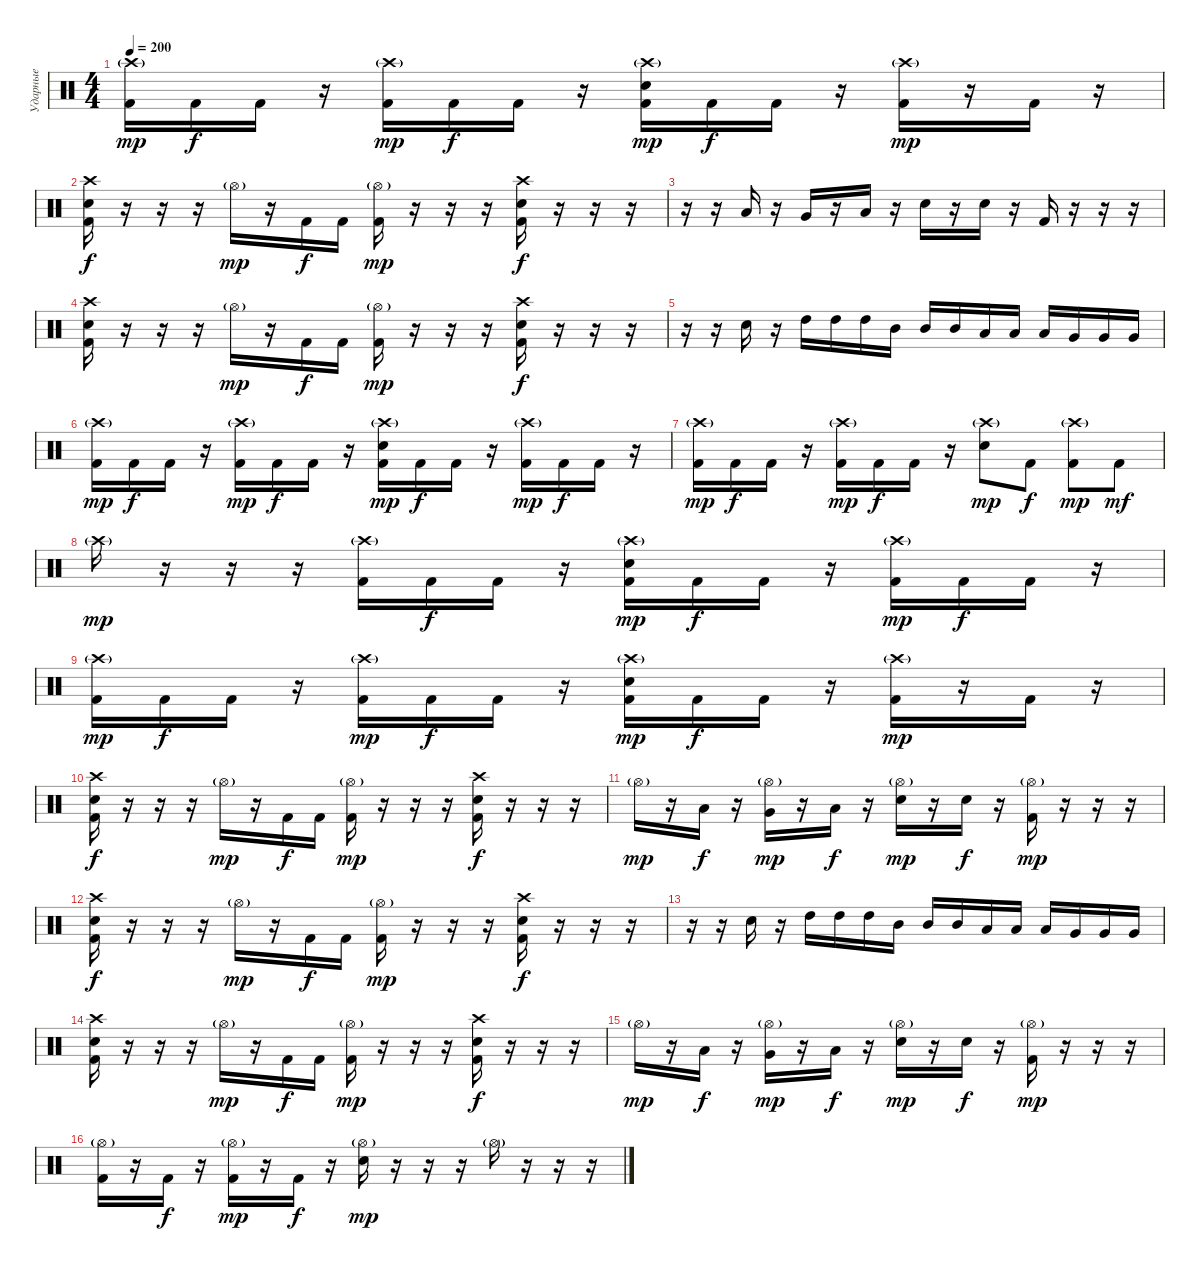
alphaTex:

\track ("Ударные" "Ударные") {instrument percussion bank 101}
\staff {score}
\articulation defaults
\ts (4 4)
\tempo 200
\clef neutral
\ks c
("Crash high (hit)"{g} "Kick (hit) 2").16{dy mp} "Kick (hit) 2".16{dy f} "Kick (hit) 2".16 r.16 ("Crash high (hit)"{g} "Kick (hit) 2").16{dy mp} "Kick (hit) 2".16{dy f} "Kick (hit) 2".16 r.16 ("Crash high (hit)"{g} "Electric Snare (hit)" "Kick (hit) 2").16{dy mp} "Kick (hit) 2".16{dy f} "Kick (hit) 2".16 r.16 ("Crash high (hit)"{g} "Kick (hit) 2").16{dy mp} r.16 "Kick (hit) 2".16 r.16 |
("Crash high (hit)" "Electric Snare (hit)" "Kick (hit) 2").16{dy f} r.16 r.16 r.16 "Hi-Hat (open)"{g}.16{dy mp} r.16 "Kick (hit) 2".16{dy f} "Kick (hit) 2".16 ("Hi-Hat (open)"{g} "Kick (hit) 2").16{dy mp} r.16 r.16 r.16 ("Crash high (hit)" "Electric Snare (hit)" "Kick (hit) 2").16{dy f} r.16 r.16 r.16 |
r.16 r.16 "Low Tom (hit)".16 r.16 "Very Low Tom (hit)".16 r.16 "Low Floor Tom (hit)".16 r.16 "Electric Snare (hit)".16 r.16 "Electric Snare (hit)".16 r.16 "Kick (hit) 2".16 r.16 r.16 r.16 |
("Crash high (hit)" "Electric Snare (hit)" "Kick (hit) 2").16 r.16 r.16 r.16 "Hi-Hat (open)"{g}.16{dy mp} r.16 "Kick (hit) 2".16{dy f} "Kick (hit) 2".16 ("Hi-Hat (open)"{g} "Kick (hit) 2").16{dy mp} r.16 r.16 r.16 ("Crash high (hit)" "Electric Snare (hit)" "Kick (hit) 2").16{dy f} r.16 r.16 r.16 |
r.16 r.16 "Electric Snare (hit)".16 r.16 "High Tom (hit)".16 "High Tom (hit)".16 "High Tom (hit)".16 "Mid Tom (hit)".16 "Mid Tom (hit)".16 "Mid Tom (hit)".16 "Low Tom (hit)".16 "Low Tom (hit)".16 "Low Tom (hit)".16 "Very Low Tom (hit)".16 "Very Low Tom (hit)".16 "Very Low Tom (hit)".16 |
("Crash high (hit)"{g} "Kick (hit) 2").16{dy mp} "Kick (hit) 2".16{dy f} "Kick (hit) 2".16 r.16 ("Crash high (hit)"{g} "Kick (hit) 2").16{dy mp} "Kick (hit) 2".16{dy f} "Kick (hit) 2".16 r.16 ("Crash high (hit)"{g} "Electric Snare (hit)" "Kick (hit) 2").16{dy mp} "Kick (hit) 2".16{dy f} "Kick (hit) 2".16 r.16 ("Crash high (hit)"{g} "Kick (hit) 2").16{dy mp} "Kick (hit) 2".16{dy f} "Kick (hit) 2".16 r.16 |
("Crash high (hit)"{g} "Kick (hit) 2").16{dy mp} "Kick (hit) 2".16{dy f} "Kick (hit) 2".16 r.16 ("Crash high (hit)"{g} "Kick (hit) 2").16{dy mp} "Kick (hit) 2".16{dy f} "Kick (hit) 2".16 r.16 ("Crash high (hit)"{g} "Electric Snare (hit)").8{dy mp} "Kick (hit) 2".8{dy f} ("Crash high (hit)"{g} "Kick (hit) 2").8{dy mp} "Kick (hit) 2".8{dy mf} |
"Crash high (hit)"{g}.16{dy mp} r.16 r.16 r.16 ("Crash high (hit)"{g} "Kick (hit) 2").16 "Kick (hit) 2".16{dy f} "Kick (hit) 2".16 r.16 ("Crash high (hit)"{g} "Electric Snare (hit)" "Kick (hit) 2").16{dy mp} "Kick (hit) 2".16{dy f} "Kick (hit) 2".16 r.16 ("Crash high (hit)"{g} "Kick (hit) 2").16{dy mp} "Kick (hit) 2".16{dy f} "Kick (hit) 2".16 r.16 |
("Crash high (hit)"{g} "Kick (hit) 2").16{dy mp} "Kick (hit) 2".16{dy f} "Kick (hit) 2".16 r.16 ("Crash high (hit)"{g} "Kick (hit) 2").16{dy mp} "Kick (hit) 2".16{dy f} "Kick (hit) 2".16 r.16 ("Crash high (hit)"{g} "Electric Snare (hit)" "Kick (hit) 2").16{dy mp} "Kick (hit) 2".16{dy f} "Kick (hit) 2".16 r.16 ("Crash high (hit)"{g} "Kick (hit) 2").16{dy mp} r.16 "Kick (hit) 2".16 r.16 |
("Crash high (hit)" "Electric Snare (hit)" "Kick (hit) 2").16{dy f} r.16 r.16 r.16 "Hi-Hat (open)"{g}.16{dy mp} r.16 "Kick (hit) 2".16{dy f} "Kick (hit) 2".16 ("Hi-Hat (open)"{g} "Kick (hit) 2").16{dy mp} r.16 r.16 r.16 ("Crash high (hit)" "Electric Snare (hit)" "Kick (hit) 2").16{dy f} r.16 r.16 r.16 |
"Hi-Hat (open)"{g}.16{dy mp} r.16 "Low Tom (hit)".16{dy f} r.16 ("Hi-Hat (open)"{g} "Very Low Tom (hit)").16{dy mp} r.16 "Low Floor Tom (hit)".16{dy f} r.16 ("Hi-Hat (open)"{g} "Electric Snare (hit)").16{dy mp} r.16 "Electric Snare (hit)".16{dy f} r.16 ("Hi-Hat (open)"{g} "Kick (hit) 2").16{dy mp} r.16 r.16 r.16 |
("Crash high (hit)" "Electric Snare (hit)" "Kick (hit) 2").16{dy f} r.16 r.16 r.16 "Hi-Hat (open)"{g}.16{dy mp} r.16 "Kick (hit) 2".16{dy f} "Kick (hit) 2".16 ("Hi-Hat (open)"{g} "Kick (hit) 2").16{dy mp} r.16 r.16 r.16 ("Crash high (hit)" "Electric Snare (hit)" "Kick (hit) 2").16{dy f} r.16 r.16 r.16 |
r.16 r.16 "Electric Snare (hit)".16 r.16 "High Tom (hit)".16 "High Tom (hit)".16 "High Tom (hit)".16 "Mid Tom (hit)".16 "Mid Tom (hit)".16 "Mid Tom (hit)".16 "Low Tom (hit)".16 "Low Tom (hit)".16 "Low Tom (hit)".16 "Very Low Tom (hit)".16 "Very Low Tom (hit)".16 "Very Low Tom (hit)".16 |
("Crash high (hit)" "Electric Snare (hit)" "Kick (hit) 2").16 r.16 r.16 r.16 "Hi-Hat (open)"{g}.16{dy mp} r.16 "Kick (hit) 2".16{dy f} "Kick (hit) 2".16 ("Hi-Hat (open)"{g} "Kick (hit) 2").16{dy mp} r.16 r.16 r.16 ("Crash high (hit)" "Electric Snare (hit)" "Kick (hit) 2").16{dy f} r.16 r.16 r.16 |
"Hi-Hat (open)"{g}.16{dy mp} r.16 "Low Tom (hit)".16{dy f} r.16 ("Hi-Hat (open)"{g} "Very Low Tom (hit)").16{dy mp} r.16 "Low Floor Tom (hit)".16{dy f} r.16 ("Hi-Hat (open)"{g} "Electric Snare (hit)").16{dy mp} r.16 "Electric Snare (hit)".16{dy f} r.16 ("Hi-Hat (open)"{g} "Kick (hit) 2").16{dy mp} r.16 r.16 r.16 |
("Hi-Hat (open)"{g} "Kick (hit) 2").16 r.16 "Kick (hit) 2".16{dy f} r.16 ("Hi-Hat (open)"{g} "Kick (hit) 2").16{dy mp} r.16 "Kick (hit) 2".16{dy f} r.16 ("Hi-Hat (open)"{g} "Electric Snare (hit)").16{dy mp} r.16 r.16 r.16 "Hi-Hat (open)"{g}.16 r.16 r.16 r.16
